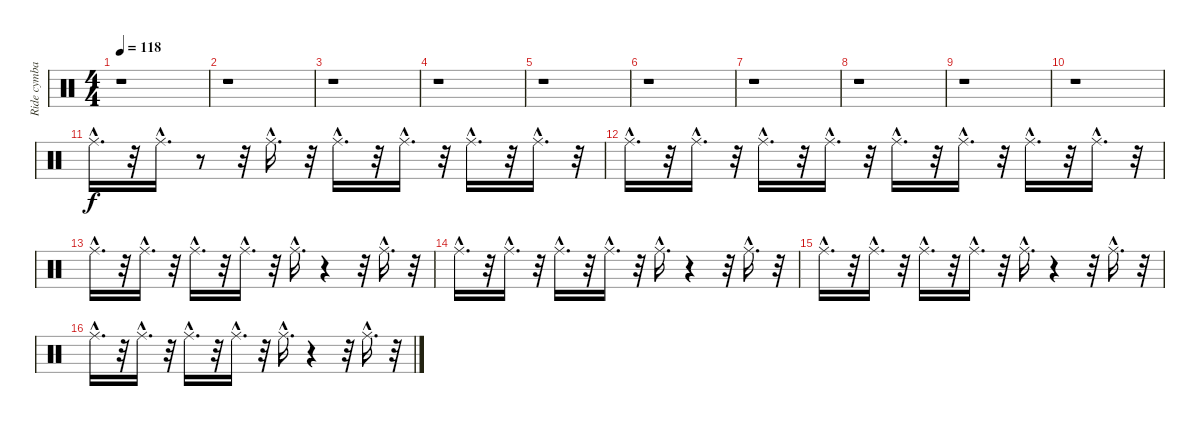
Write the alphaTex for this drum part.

\track ("Ride cymbal         " "Ride cymba") {instrument percussion}
\staff {score}
\articulation defaults
\ts (4 4)
\tempo 118
\clef neutral
\ks c
r.1{dy f} |
r.1 |
r.1 |
r.1 |
r.1 |
r.1 |
r.1 |
r.1 |
r.1 |
r.1 |
"Ride (middle)"{hac}.16{d} r.32 "Ride (middle)"{hac}.16{d} r.8 r.32 "Ride (middle)"{hac}.16{d} r.32 "Ride (middle)"{hac}.16{d} r.32 "Ride (middle)"{hac}.16{d} r.32 "Ride (middle)"{hac}.16{d} r.32 "Ride (middle)"{hac}.16{d} r.32 |
"Ride (middle)"{hac}.16{d} r.32 "Ride (middle)"{hac}.16{d} r.32 "Ride (middle)"{hac}.16{d} r.32 "Ride (middle)"{hac}.16{d} r.32 "Ride (middle)"{hac}.16{d} r.32 "Ride (middle)"{hac}.16{d} r.32 "Ride (middle)"{hac}.16{d} r.32 "Ride (middle)"{hac}.16{d} r.32 |
"Ride (middle)"{hac}.16{d} r.32 "Ride (middle)"{hac}.16{d} r.32 "Ride (middle)"{hac}.16{d} r.32 "Ride (middle)"{hac}.16{d} r.32 "Ride (middle)"{hac}.16{d} r.4 r.32 "Ride (middle)"{hac}.16{d} r.32 |
"Ride (middle)"{hac}.16{d} r.32 "Ride (middle)"{hac}.16{d} r.32 "Ride (middle)"{hac}.16{d} r.32 "Ride (middle)"{hac}.16{d} r.32 "Ride (middle)"{hac}.16{d} r.4 r.32 "Ride (middle)"{hac}.16{d} r.32 |
"Ride (middle)"{hac}.16{d} r.32 "Ride (middle)"{hac}.16{d} r.32 "Ride (middle)"{hac}.16{d} r.32 "Ride (middle)"{hac}.16{d} r.32 "Ride (middle)"{hac}.16{d} r.4 r.32 "Ride (middle)"{hac}.16{d} r.32 |
"Ride (middle)"{hac}.16{d} r.32 "Ride (middle)"{hac}.16{d} r.32 "Ride (middle)"{hac}.16{d} r.32 "Ride (middle)"{hac}.16{d} r.32 "Ride (middle)"{hac}.16{d} r.4 r.32 "Ride (middle)"{hac}.16{d} r.32
